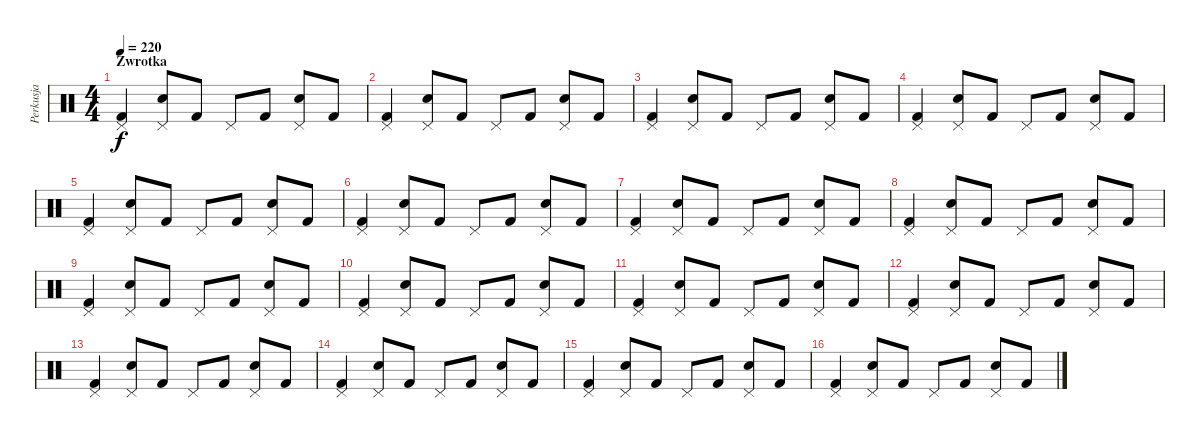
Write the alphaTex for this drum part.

\track ("Perkusja" "Perkusja") {instrument percussion}
\staff {score}
\articulation defaults
\ts (4 4)
\section ("" "Zwrotka")
\tempo 220
\clef neutral
\ks c
("Pedal Hi-Hat (hit)" "Kick (hit) 2").4{dy f} ("Pedal Hi-Hat (hit)" "Snare (hit) 2").8 "Kick (hit) 2".8 "Pedal Hi-Hat (hit)".8 "Kick (hit) 2".8 ("Pedal Hi-Hat (hit)" "Snare (hit) 2").8 "Kick (hit) 2".8 |
("Pedal Hi-Hat (hit)" "Kick (hit) 2").4 ("Pedal Hi-Hat (hit)" "Snare (hit) 2").8 "Kick (hit) 2".8 "Pedal Hi-Hat (hit)".8 "Kick (hit) 2".8 ("Pedal Hi-Hat (hit)" "Snare (hit) 2").8 "Kick (hit) 2".8 |
("Pedal Hi-Hat (hit)" "Kick (hit) 2").4 ("Pedal Hi-Hat (hit)" "Snare (hit) 2").8 "Kick (hit) 2".8 "Pedal Hi-Hat (hit)".8 "Kick (hit) 2".8 ("Pedal Hi-Hat (hit)" "Snare (hit) 2").8 "Kick (hit) 2".8 |
("Pedal Hi-Hat (hit)" "Kick (hit) 2").4 ("Pedal Hi-Hat (hit)" "Snare (hit) 2").8 "Kick (hit) 2".8 "Pedal Hi-Hat (hit)".8 "Kick (hit) 2".8 ("Pedal Hi-Hat (hit)" "Snare (hit) 2").8 "Kick (hit) 2".8 |
("Pedal Hi-Hat (hit)" "Kick (hit) 2").4 ("Pedal Hi-Hat (hit)" "Snare (hit) 2").8 "Kick (hit) 2".8 "Pedal Hi-Hat (hit)".8 "Kick (hit) 2".8 ("Pedal Hi-Hat (hit)" "Snare (hit) 2").8 "Kick (hit) 2".8 |
("Pedal Hi-Hat (hit)" "Kick (hit) 2").4 ("Pedal Hi-Hat (hit)" "Snare (hit) 2").8 "Kick (hit) 2".8 "Pedal Hi-Hat (hit)".8 "Kick (hit) 2".8 ("Pedal Hi-Hat (hit)" "Snare (hit) 2").8 "Kick (hit) 2".8 |
("Pedal Hi-Hat (hit)" "Kick (hit) 2").4 ("Pedal Hi-Hat (hit)" "Snare (hit) 2").8 "Kick (hit) 2".8 "Pedal Hi-Hat (hit)".8 "Kick (hit) 2".8 ("Pedal Hi-Hat (hit)" "Snare (hit) 2").8 "Kick (hit) 2".8 |
("Pedal Hi-Hat (hit)" "Kick (hit) 2").4 ("Pedal Hi-Hat (hit)" "Snare (hit) 2").8 "Kick (hit) 2".8 "Pedal Hi-Hat (hit)".8 "Kick (hit) 2".8 ("Pedal Hi-Hat (hit)" "Snare (hit) 2").8 "Kick (hit) 2".8 |
("Pedal Hi-Hat (hit)" "Kick (hit) 2").4 ("Pedal Hi-Hat (hit)" "Snare (hit) 2").8 "Kick (hit) 2".8 "Pedal Hi-Hat (hit)".8 "Kick (hit) 2".8 ("Pedal Hi-Hat (hit)" "Snare (hit) 2").8 "Kick (hit) 2".8 |
("Pedal Hi-Hat (hit)" "Kick (hit) 2").4 ("Pedal Hi-Hat (hit)" "Snare (hit) 2").8 "Kick (hit) 2".8 "Pedal Hi-Hat (hit)".8 "Kick (hit) 2".8 ("Pedal Hi-Hat (hit)" "Snare (hit) 2").8 "Kick (hit) 2".8 |
("Pedal Hi-Hat (hit)" "Kick (hit) 2").4 ("Pedal Hi-Hat (hit)" "Snare (hit) 2").8 "Kick (hit) 2".8 "Pedal Hi-Hat (hit)".8 "Kick (hit) 2".8 ("Pedal Hi-Hat (hit)" "Snare (hit) 2").8 "Kick (hit) 2".8 |
("Pedal Hi-Hat (hit)" "Kick (hit) 2").4 ("Pedal Hi-Hat (hit)" "Snare (hit) 2").8 "Kick (hit) 2".8 "Pedal Hi-Hat (hit)".8 "Kick (hit) 2".8 ("Pedal Hi-Hat (hit)" "Snare (hit) 2").8 "Kick (hit) 2".8 |
("Pedal Hi-Hat (hit)" "Kick (hit) 2").4 ("Pedal Hi-Hat (hit)" "Snare (hit) 2").8 "Kick (hit) 2".8 "Pedal Hi-Hat (hit)".8 "Kick (hit) 2".8 ("Pedal Hi-Hat (hit)" "Snare (hit) 2").8 "Kick (hit) 2".8 |
("Pedal Hi-Hat (hit)" "Kick (hit) 2").4 ("Pedal Hi-Hat (hit)" "Snare (hit) 2").8 "Kick (hit) 2".8 "Pedal Hi-Hat (hit)".8 "Kick (hit) 2".8 ("Pedal Hi-Hat (hit)" "Snare (hit) 2").8 "Kick (hit) 2".8 |
("Pedal Hi-Hat (hit)" "Kick (hit) 2").4 ("Pedal Hi-Hat (hit)" "Snare (hit) 2").8 "Kick (hit) 2".8 "Pedal Hi-Hat (hit)".8 "Kick (hit) 2".8 ("Pedal Hi-Hat (hit)" "Snare (hit) 2").8 "Kick (hit) 2".8 |
("Pedal Hi-Hat (hit)" "Kick (hit) 2").4 ("Pedal Hi-Hat (hit)" "Snare (hit) 2").8 "Kick (hit) 2".8 "Pedal Hi-Hat (hit)".8 "Kick (hit) 2".8 ("Pedal Hi-Hat (hit)" "Snare (hit) 2").8 "Kick (hit) 2".8
